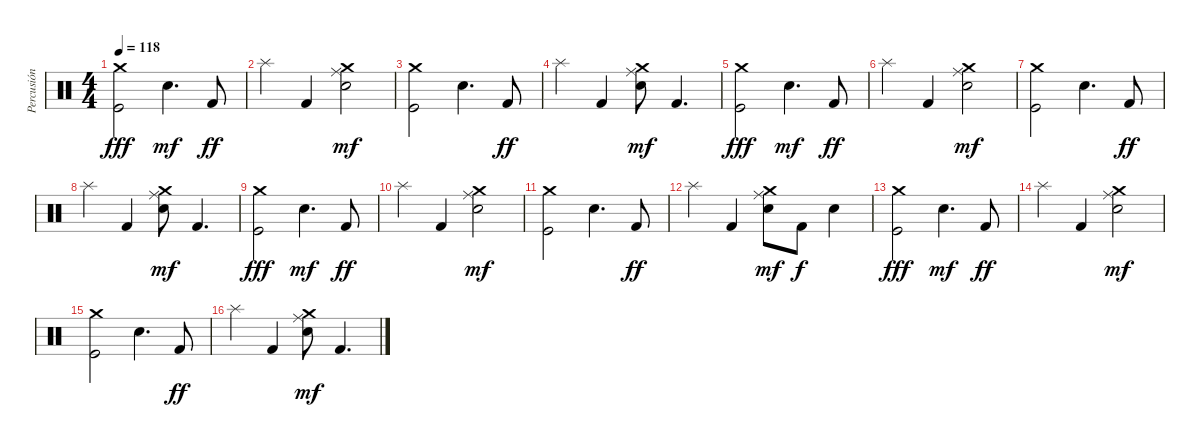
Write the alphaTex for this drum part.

\track ("Percusión" "Percusión") {instrument percussion}
\staff {score}
\articulation defaults
\ts (4 4)
\tempo 118
\clef neutral
\ks c
("Kick (hit)" "Crash medium (hit)").2{dy fff} "Snare (hit) 2".4{d dy mf} "Kick (hit) 2".8{dy ff} |
"Splash (hit)".4 "Kick (hit) 2".4 ("Ride (middle)" "Crash medium (hit)" "Snare (hit) 2").2{dy mf} |
("Kick (hit)" "Crash medium (hit)").2 "Snare (hit) 2".4{d} "Kick (hit) 2".8{dy ff} |
"Splash (hit)".4 "Kick (hit) 2".4 ("Ride (middle)" "Crash medium (hit)" "Snare (hit) 2").8{dy mf} "Kick (hit) 2".4{d} |
("Kick (hit)" "Crash medium (hit)").2{dy fff} "Snare (hit) 2".4{d dy mf} "Kick (hit) 2".8{dy ff} |
"Splash (hit)".4 "Kick (hit) 2".4 ("Ride (middle)" "Crash medium (hit)" "Snare (hit) 2").2{dy mf} |
("Kick (hit)" "Crash medium (hit)").2 "Snare (hit) 2".4{d} "Kick (hit) 2".8{dy ff} |
"Splash (hit)".4 "Kick (hit) 2".4 ("Ride (middle)" "Crash medium (hit)" "Snare (hit) 2").8{dy mf} "Kick (hit) 2".4{d} |
("Kick (hit)" "Crash medium (hit)").2{dy fff} "Snare (hit) 2".4{d dy mf} "Kick (hit) 2".8{dy ff} |
"Splash (hit)".4 "Kick (hit) 2".4 ("Ride (middle)" "Crash medium (hit)" "Snare (hit) 2").2{dy mf} |
("Kick (hit)" "Crash medium (hit)").2 "Snare (hit) 2".4{d} "Kick (hit) 2".8{dy ff} |
"Splash (hit)".4 "Kick (hit) 2".4 ("Ride (middle)" "Crash medium (hit)" "Snare (hit) 2").8{dy mf} "Kick (hit) 2".8{dy f} "Snare (hit) 2".4 |
("Kick (hit)" "Crash medium (hit)").2{dy fff} "Snare (hit) 2".4{d dy mf} "Kick (hit) 2".8{dy ff} |
"Splash (hit)".4 "Kick (hit) 2".4 ("Ride (middle)" "Crash medium (hit)" "Snare (hit) 2").2{dy mf} |
("Kick (hit)" "Crash medium (hit)").2 "Snare (hit) 2".4{d} "Kick (hit) 2".8{dy ff} |
"Splash (hit)".4 "Kick (hit) 2".4 ("Ride (middle)" "Crash medium (hit)" "Snare (hit) 2").8{dy mf} "Kick (hit) 2".4{d}
